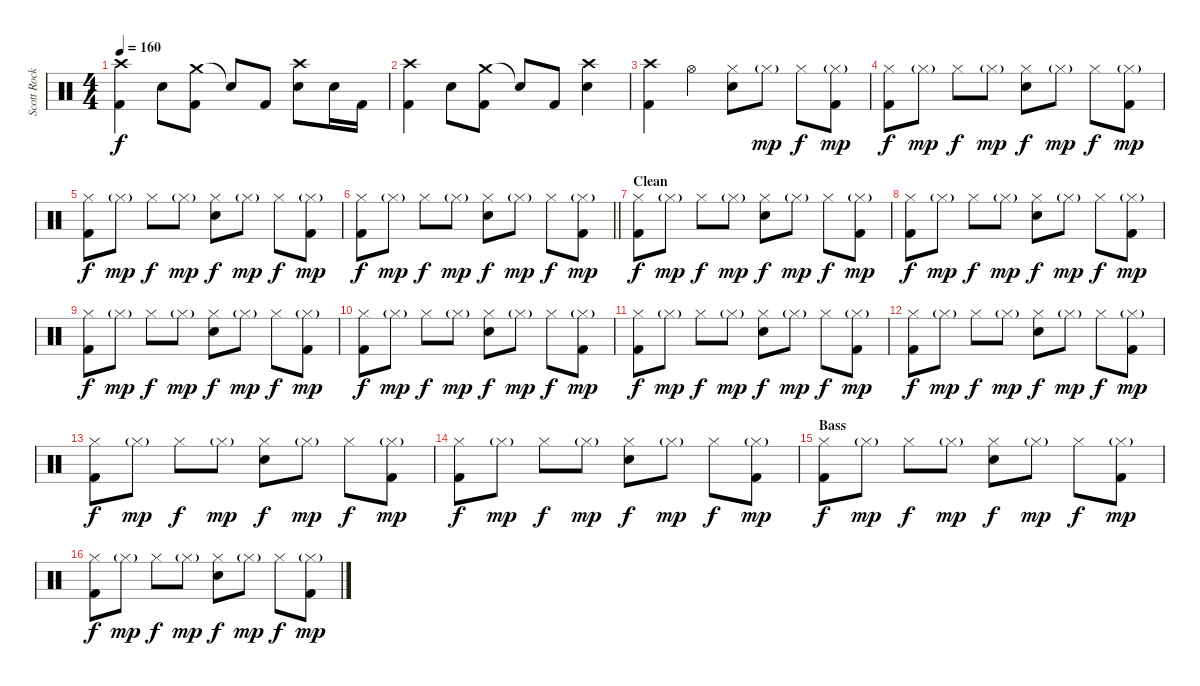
\track ("Scott Rockenfield" "Scott Rock") {instrument percussion}
\staff {score}
\articulation defaults
\ts (4 4)
\tempo 160
\clef neutral
\ks c
("Crash high (hit)" "Kick (hit) 2").4{dy f} "Electric Snare (hit)".8 ("Crash medium (hit)" "Kick (hit) 2").8 "Snare (hit)"{t}.8 "Kick (hit) 2".8 ("Crash high (hit)" "Electric Snare (hit)").8 "Electric Snare (hit)".16 "Kick (hit) 2".16 |
("Crash high (hit)" "Kick (hit) 2").4 "Electric Snare (hit)".8 ("Crash medium (hit)" "Kick (hit) 2").8 "Snare (hit)"{t}.8 "Kick (hit) 2".8 ("Crash high (hit)" "Electric Snare (hit)").4 |
("Crash high (hit)" "Kick (hit) 2").4 "Hi-Hat (open)".4 ("Hi-Hat (closed)" "Electric Snare (hit)").8 "Hi-Hat (closed)"{g}.8{dy mp} "Hi-Hat (closed)".8{dy f} ("Hi-Hat (closed)"{g} "Kick (hit) 2").8{dy mp} |
("Hi-Hat (closed)" "Kick (hit) 2").8{dy f} "Hi-Hat (closed)"{g}.8{dy mp} "Hi-Hat (closed)".8{dy f} "Hi-Hat (closed)"{g}.8{dy mp} ("Hi-Hat (closed)" "Electric Snare (hit)").8{dy f} "Hi-Hat (closed)"{g}.8{dy mp} "Hi-Hat (closed)".8{dy f} ("Hi-Hat (closed)"{g} "Kick (hit) 2").8{dy mp} |
("Hi-Hat (closed)" "Kick (hit) 2").8{dy f} "Hi-Hat (closed)"{g}.8{dy mp} "Hi-Hat (closed)".8{dy f} "Hi-Hat (closed)"{g}.8{dy mp} ("Hi-Hat (closed)" "Electric Snare (hit)").8{dy f} "Hi-Hat (closed)"{g}.8{dy mp} "Hi-Hat (closed)".8{dy f} ("Hi-Hat (closed)"{g} "Kick (hit) 2").8{dy mp} |
\barLineRight lightlight
("Hi-Hat (closed)" "Kick (hit) 2").8{dy f} "Hi-Hat (closed)"{g}.8{dy mp} "Hi-Hat (closed)".8{dy f} "Hi-Hat (closed)"{g}.8{dy mp} ("Hi-Hat (closed)" "Electric Snare (hit)").8{dy f} "Hi-Hat (closed)"{g}.8{dy mp} "Hi-Hat (closed)".8{dy f} ("Hi-Hat (closed)"{g} "Kick (hit) 2").8{dy mp} |
\section ("" "Clean")
("Hi-Hat (closed)" "Kick (hit) 2").8{dy f} "Hi-Hat (closed)"{g}.8{dy mp} "Hi-Hat (closed)".8{dy f} "Hi-Hat (closed)"{g}.8{dy mp} ("Hi-Hat (closed)" "Electric Snare (hit)").8{dy f} "Hi-Hat (closed)"{g}.8{dy mp} "Hi-Hat (closed)".8{dy f} ("Hi-Hat (closed)"{g} "Kick (hit) 2").8{dy mp} |
("Hi-Hat (closed)" "Kick (hit) 2").8{dy f} "Hi-Hat (closed)"{g}.8{dy mp} "Hi-Hat (closed)".8{dy f} "Hi-Hat (closed)"{g}.8{dy mp} ("Hi-Hat (closed)" "Electric Snare (hit)").8{dy f} "Hi-Hat (closed)"{g}.8{dy mp} "Hi-Hat (closed)".8{dy f} ("Hi-Hat (closed)"{g} "Kick (hit) 2").8{dy mp} |
("Hi-Hat (closed)" "Kick (hit) 2").8{dy f} "Hi-Hat (closed)"{g}.8{dy mp} "Hi-Hat (closed)".8{dy f} "Hi-Hat (closed)"{g}.8{dy mp} ("Hi-Hat (closed)" "Electric Snare (hit)").8{dy f} "Hi-Hat (closed)"{g}.8{dy mp} "Hi-Hat (closed)".8{dy f} ("Hi-Hat (closed)"{g} "Kick (hit) 2").8{dy mp} |
("Hi-Hat (closed)" "Kick (hit) 2").8{dy f} "Hi-Hat (closed)"{g}.8{dy mp} "Hi-Hat (closed)".8{dy f} "Hi-Hat (closed)"{g}.8{dy mp} ("Hi-Hat (closed)" "Electric Snare (hit)").8{dy f} "Hi-Hat (closed)"{g}.8{dy mp} "Hi-Hat (closed)".8{dy f} ("Hi-Hat (closed)"{g} "Kick (hit) 2").8{dy mp} |
("Hi-Hat (closed)" "Kick (hit) 2").8{dy f} "Hi-Hat (closed)"{g}.8{dy mp} "Hi-Hat (closed)".8{dy f} "Hi-Hat (closed)"{g}.8{dy mp} ("Hi-Hat (closed)" "Electric Snare (hit)").8{dy f} "Hi-Hat (closed)"{g}.8{dy mp} "Hi-Hat (closed)".8{dy f} ("Hi-Hat (closed)"{g} "Kick (hit) 2").8{dy mp} |
("Hi-Hat (closed)" "Kick (hit) 2").8{dy f} "Hi-Hat (closed)"{g}.8{dy mp} "Hi-Hat (closed)".8{dy f} "Hi-Hat (closed)"{g}.8{dy mp} ("Hi-Hat (closed)" "Electric Snare (hit)").8{dy f} "Hi-Hat (closed)"{g}.8{dy mp} "Hi-Hat (closed)".8{dy f} ("Hi-Hat (closed)"{g} "Kick (hit) 2").8{dy mp} |
("Hi-Hat (closed)" "Kick (hit) 2").8{dy f} "Hi-Hat (closed)"{g}.8{dy mp} "Hi-Hat (closed)".8{dy f} "Hi-Hat (closed)"{g}.8{dy mp} ("Hi-Hat (closed)" "Electric Snare (hit)").8{dy f} "Hi-Hat (closed)"{g}.8{dy mp} "Hi-Hat (closed)".8{dy f} ("Hi-Hat (closed)"{g} "Kick (hit) 2").8{dy mp} |
("Hi-Hat (closed)" "Kick (hit) 2").8{dy f} "Hi-Hat (closed)"{g}.8{dy mp} "Hi-Hat (closed)".8{dy f} "Hi-Hat (closed)"{g}.8{dy mp} ("Hi-Hat (closed)" "Electric Snare (hit)").8{dy f} "Hi-Hat (closed)"{g}.8{dy mp} "Hi-Hat (closed)".8{dy f} ("Hi-Hat (closed)"{g} "Kick (hit) 2").8{dy mp} |
\section ("" "Bass")
("Hi-Hat (closed)" "Kick (hit) 2").8{dy f} "Hi-Hat (closed)"{g}.8{dy mp} "Hi-Hat (closed)".8{dy f} "Hi-Hat (closed)"{g}.8{dy mp} ("Hi-Hat (closed)" "Electric Snare (hit)").8{dy f} "Hi-Hat (closed)"{g}.8{dy mp} "Hi-Hat (closed)".8{dy f} ("Hi-Hat (closed)"{g} "Kick (hit) 2").8{dy mp} |
("Hi-Hat (closed)" "Kick (hit) 2").8{dy f} "Hi-Hat (closed)"{g}.8{dy mp} "Hi-Hat (closed)".8{dy f} "Hi-Hat (closed)"{g}.8{dy mp} ("Hi-Hat (closed)" "Electric Snare (hit)").8{dy f} "Hi-Hat (closed)"{g}.8{dy mp} "Hi-Hat (closed)".8{dy f} ("Hi-Hat (closed)"{g} "Kick (hit) 2").8{dy mp}
